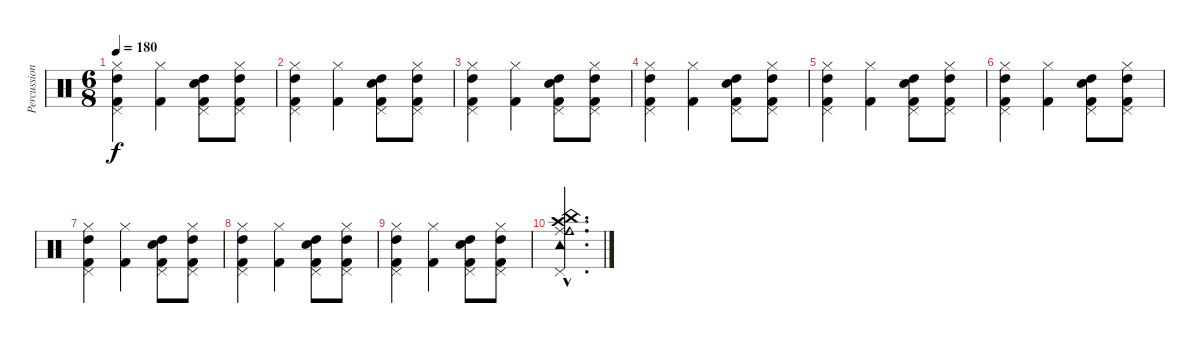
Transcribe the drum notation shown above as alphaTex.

\track ("Percussion" "Percussion") {instrument percussion}
\staff {score}
\articulation defaults
\ts (6 8)
\tempo 180
\clef neutral
\ks c
("Kick (hit) 2" "High Tom (hit)" "Pedal Hi-Hat (hit)" "Hi-Hat (closed)").4{dy f} ("Kick (hit) 2" "Hi-Hat (closed)").4 ("Kick (hit) 2" "High Tom (hit)" "Pedal Hi-Hat (hit)" "Snare (hit)").8 ("Kick (hit) 2" "High Tom (hit)" "Pedal Hi-Hat (hit)" "Hi-Hat (closed)").8 |
("Kick (hit) 2" "High Tom (hit)" "Pedal Hi-Hat (hit)" "Hi-Hat (closed)").4 ("Kick (hit) 2" "Hi-Hat (closed)").4 ("Kick (hit) 2" "High Tom (hit)" "Pedal Hi-Hat (hit)" "Snare (hit)").8 ("Kick (hit) 2" "High Tom (hit)" "Pedal Hi-Hat (hit)" "Hi-Hat (closed)").8 |
("Kick (hit) 2" "High Tom (hit)" "Pedal Hi-Hat (hit)" "Hi-Hat (closed)").4 ("Kick (hit) 2" "Hi-Hat (closed)").4 ("Kick (hit) 2" "High Tom (hit)" "Pedal Hi-Hat (hit)" "Snare (hit)").8 ("Kick (hit) 2" "High Tom (hit)" "Pedal Hi-Hat (hit)" "Hi-Hat (closed)").8 |
("Kick (hit) 2" "High Tom (hit)" "Pedal Hi-Hat (hit)" "Hi-Hat (closed)").4 ("Kick (hit) 2" "Hi-Hat (closed)").4 ("Kick (hit) 2" "High Tom (hit)" "Pedal Hi-Hat (hit)" "Snare (hit)").8 ("Kick (hit) 2" "High Tom (hit)" "Pedal Hi-Hat (hit)" "Hi-Hat (closed)").8 |
("Kick (hit) 2" "High Tom (hit)" "Pedal Hi-Hat (hit)" "Hi-Hat (closed)").4 ("Kick (hit) 2" "Hi-Hat (closed)").4 ("Kick (hit) 2" "High Tom (hit)" "Pedal Hi-Hat (hit)" "Snare (hit)").8 ("Kick (hit) 2" "High Tom (hit)" "Pedal Hi-Hat (hit)" "Hi-Hat (closed)").8 |
("Kick (hit) 2" "High Tom (hit)" "Pedal Hi-Hat (hit)" "Hi-Hat (closed)").4 ("Kick (hit) 2" "Hi-Hat (closed)").4 ("Kick (hit) 2" "High Tom (hit)" "Pedal Hi-Hat (hit)" "Snare (hit)").8 ("Kick (hit) 2" "High Tom (hit)" "Pedal Hi-Hat (hit)" "Hi-Hat (closed)").8 |
("Kick (hit) 2" "High Tom (hit)" "Pedal Hi-Hat (hit)" "Hi-Hat (closed)").4 ("Kick (hit) 2" "Hi-Hat (closed)").4 ("Kick (hit) 2" "High Tom (hit)" "Pedal Hi-Hat (hit)" "Snare (hit)").8 ("Kick (hit) 2" "High Tom (hit)" "Pedal Hi-Hat (hit)" "Hi-Hat (closed)").8 |
("Kick (hit) 2" "High Tom (hit)" "Pedal Hi-Hat (hit)" "Hi-Hat (closed)").4 ("Kick (hit) 2" "Hi-Hat (closed)").4 ("Kick (hit) 2" "High Tom (hit)" "Pedal Hi-Hat (hit)" "Snare (hit)").8 ("Kick (hit) 2" "High Tom (hit)" "Pedal Hi-Hat (hit)" "Hi-Hat (closed)").8 |
("Kick (hit) 2" "High Tom (hit)" "Pedal Hi-Hat (hit)" "Hi-Hat (closed)").4 ("Kick (hit) 2" "Hi-Hat (closed)").4 ("Kick (hit) 2" "High Tom (hit)" "Pedal Hi-Hat (hit)" "Snare (hit)").8 ("Kick (hit) 2" "High Tom (hit)" "Pedal Hi-Hat (hit)" "Hi-Hat (closed)").8 |
("Ride (middle)"{hac} "Crash high (hit)"{hac} "China (hit)"{hac} "Cowbell medium (hit)"{hac} "Tambourine (hit)"{hac} "Pedal Hi-Hat (hit)"{hac}).2{d}
